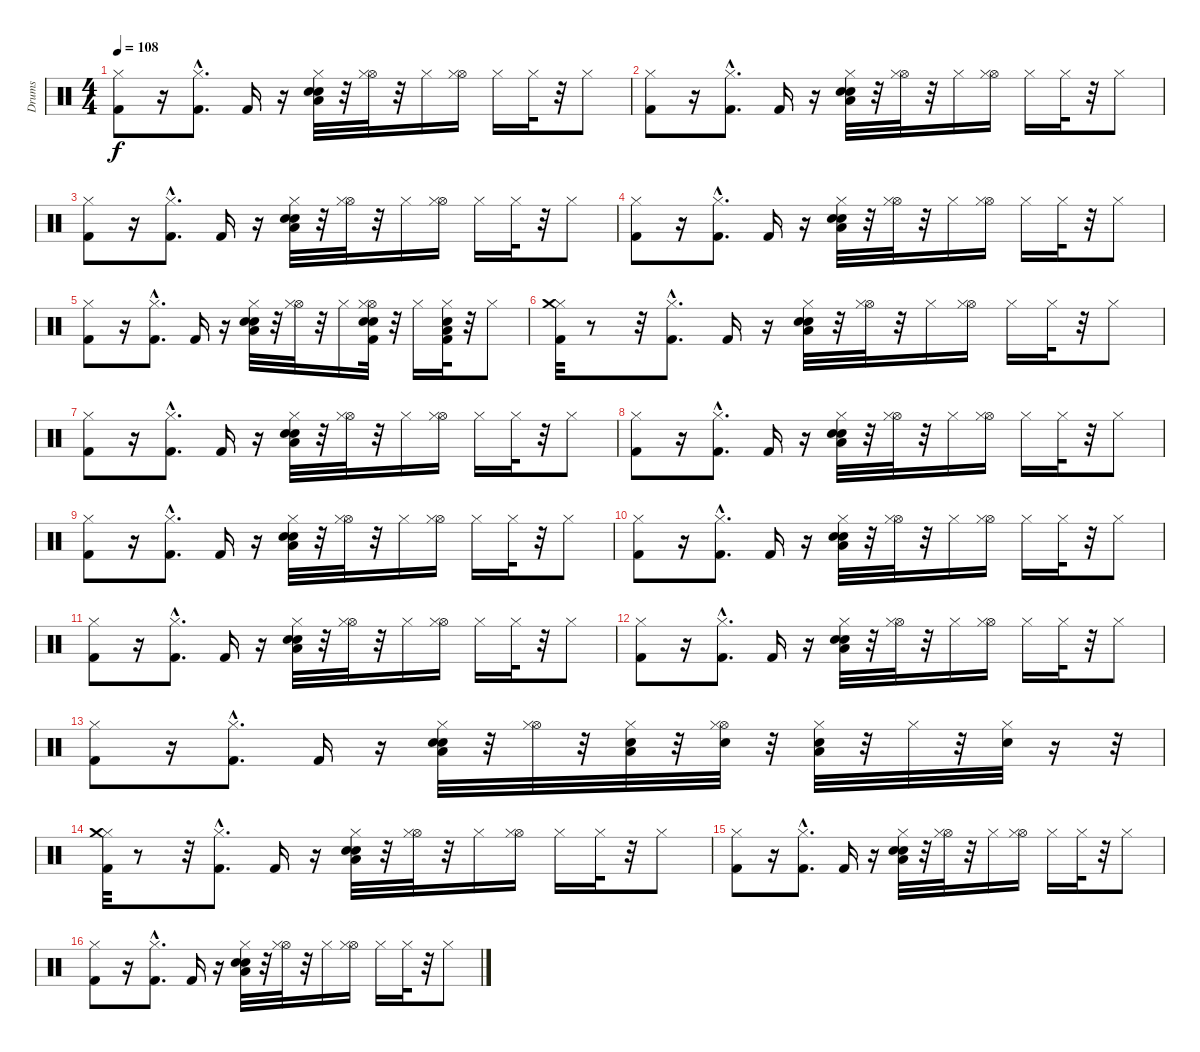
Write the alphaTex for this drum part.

\track ("Drums" "Drums") {instrument percussion}
\staff {score}
\articulation defaults
\ts (4 4)
\tempo 108
\clef neutral
\ks c
("Hi-Hat (closed)" "Kick (hit) 2").8{dy f} r.16 ("Kick (hit) 2"{hac} "Hi-Hat (closed)"{hac}).8{d} "Kick (hit) 2".16 r.16 ("Low Floor Tom (hit)" "Electric Snare (hit)" "Snare (hit) 2" "Hi-Hat (closed)").32 r.32 ("Hi-Hat (open)" "Hi-Hat (closed)").32 r.32 "Hi-Hat (closed)".16 ("Hi-Hat (open)" "Hi-Hat (closed)").16 "Hi-Hat (closed)".16 "Hi-Hat (closed)".32 r.32 "Hi-Hat (closed)".8 |
("Hi-Hat (closed)" "Kick (hit) 2").8 r.16 ("Kick (hit) 2"{hac} "Hi-Hat (closed)"{hac}).8{d} "Kick (hit) 2".16 r.16 ("Low Floor Tom (hit)" "Electric Snare (hit)" "Snare (hit) 2" "Hi-Hat (closed)").32 r.32 ("Hi-Hat (open)" "Hi-Hat (closed)").32 r.32 "Hi-Hat (closed)".16 ("Hi-Hat (open)" "Hi-Hat (closed)").16 "Hi-Hat (closed)".16 "Hi-Hat (closed)".32 r.32 "Hi-Hat (closed)".8 |
("Hi-Hat (closed)" "Kick (hit) 2").8 r.16 ("Kick (hit) 2"{hac} "Hi-Hat (closed)"{hac}).8{d} "Kick (hit) 2".16 r.16 ("Low Floor Tom (hit)" "Electric Snare (hit)" "Snare (hit) 2" "Hi-Hat (closed)").32 r.32 ("Hi-Hat (open)" "Hi-Hat (closed)").32 r.32 "Hi-Hat (closed)".16 ("Hi-Hat (open)" "Hi-Hat (closed)").16 "Hi-Hat (closed)".16 "Hi-Hat (closed)".32 r.32 "Hi-Hat (closed)".8 |
("Hi-Hat (closed)" "Kick (hit) 2").8 r.16 ("Kick (hit) 2"{hac} "Hi-Hat (closed)"{hac}).8{d} "Kick (hit) 2".16 r.16 ("Low Floor Tom (hit)" "Electric Snare (hit)" "Snare (hit) 2" "Hi-Hat (closed)").32 r.32 ("Hi-Hat (open)" "Hi-Hat (closed)").32 r.32 "Hi-Hat (closed)".16 ("Hi-Hat (open)" "Hi-Hat (closed)").16 "Hi-Hat (closed)".16 "Hi-Hat (closed)".32 r.32 "Hi-Hat (closed)".8 |
("Hi-Hat (closed)" "Kick (hit) 2").8 r.16 ("Kick (hit) 2"{hac} "Hi-Hat (closed)"{hac}).8{d} "Kick (hit) 2".16 r.16 ("Low Floor Tom (hit)" "Electric Snare (hit)" "Snare (hit) 2" "Hi-Hat (closed)").32 r.32 ("Hi-Hat (open)" "Hi-Hat (closed)").32 r.32 "Hi-Hat (closed)".16 ("Hi-Hat (open)" "Hi-Hat (closed)" "Kick (hit) 2" "Electric Snare (hit)" "Snare (hit) 2").32 r.32 "Hi-Hat (closed)".16 ("Snare (hit) 2" "Kick (hit) 2" "Low Floor Tom (hit)" "Hi-Hat (closed)").32 r.32 "Hi-Hat (closed)".8 |
("Hi-Hat (closed)" "Kick (hit) 2" "Crash medium (hit)").32 r.8 r.32 ("Kick (hit) 2"{hac} "Hi-Hat (closed)"{hac}).8{d} "Kick (hit) 2".16 r.16 ("Low Floor Tom (hit)" "Electric Snare (hit)" "Snare (hit) 2" "Hi-Hat (closed)").32 r.32 ("Hi-Hat (open)" "Hi-Hat (closed)").32 r.32 "Hi-Hat (closed)".16 ("Hi-Hat (open)" "Hi-Hat (closed)").16 "Hi-Hat (closed)".16 "Hi-Hat (closed)".32 r.32 "Hi-Hat (closed)".8 |
("Hi-Hat (closed)" "Kick (hit) 2").8 r.16 ("Kick (hit) 2"{hac} "Hi-Hat (closed)"{hac}).8{d} "Kick (hit) 2".16 r.16 ("Low Floor Tom (hit)" "Electric Snare (hit)" "Snare (hit) 2" "Hi-Hat (closed)").32 r.32 ("Hi-Hat (open)" "Hi-Hat (closed)").32 r.32 "Hi-Hat (closed)".16 ("Hi-Hat (open)" "Hi-Hat (closed)").16 "Hi-Hat (closed)".16 "Hi-Hat (closed)".32 r.32 "Hi-Hat (closed)".8 |
("Hi-Hat (closed)" "Kick (hit) 2").8 r.16 ("Kick (hit) 2"{hac} "Hi-Hat (closed)"{hac}).8{d} "Kick (hit) 2".16 r.16 ("Low Floor Tom (hit)" "Electric Snare (hit)" "Snare (hit) 2" "Hi-Hat (closed)").32 r.32 ("Hi-Hat (open)" "Hi-Hat (closed)").32 r.32 "Hi-Hat (closed)".16 ("Hi-Hat (open)" "Hi-Hat (closed)").16 "Hi-Hat (closed)".16 "Hi-Hat (closed)".32 r.32 "Hi-Hat (closed)".8 |
("Hi-Hat (closed)" "Kick (hit) 2").8 r.16 ("Kick (hit) 2"{hac} "Hi-Hat (closed)"{hac}).8{d} "Kick (hit) 2".16 r.16 ("Low Floor Tom (hit)" "Electric Snare (hit)" "Snare (hit) 2" "Hi-Hat (closed)").32 r.32 ("Hi-Hat (open)" "Hi-Hat (closed)").32 r.32 "Hi-Hat (closed)".16 ("Hi-Hat (open)" "Hi-Hat (closed)").16 "Hi-Hat (closed)".16 "Hi-Hat (closed)".32 r.32 "Hi-Hat (closed)".8 |
("Hi-Hat (closed)" "Kick (hit) 2").8 r.16 ("Kick (hit) 2"{hac} "Hi-Hat (closed)"{hac}).8{d} "Kick (hit) 2".16 r.16 ("Low Floor Tom (hit)" "Electric Snare (hit)" "Snare (hit) 2" "Hi-Hat (closed)").32 r.32 ("Hi-Hat (open)" "Hi-Hat (closed)").32 r.32 "Hi-Hat (closed)".16 ("Hi-Hat (open)" "Hi-Hat (closed)").16 "Hi-Hat (closed)".16 "Hi-Hat (closed)".32 r.32 "Hi-Hat (closed)".8 |
("Hi-Hat (closed)" "Kick (hit) 2").8 r.16 ("Kick (hit) 2"{hac} "Hi-Hat (closed)"{hac}).8{d} "Kick (hit) 2".16 r.16 ("Low Floor Tom (hit)" "Electric Snare (hit)" "Snare (hit) 2" "Hi-Hat (closed)").32 r.32 ("Hi-Hat (open)" "Hi-Hat (closed)").32 r.32 "Hi-Hat (closed)".16 ("Hi-Hat (open)" "Hi-Hat (closed)").16 "Hi-Hat (closed)".16 "Hi-Hat (closed)".32 r.32 "Hi-Hat (closed)".8 |
("Hi-Hat (closed)" "Kick (hit) 2").8 r.16 ("Kick (hit) 2"{hac} "Hi-Hat (closed)"{hac}).8{d} "Kick (hit) 2".16 r.16 ("Low Floor Tom (hit)" "Electric Snare (hit)" "Snare (hit) 2" "Hi-Hat (closed)").32 r.32 ("Hi-Hat (open)" "Hi-Hat (closed)").32 r.32 "Hi-Hat (closed)".16 ("Hi-Hat (open)" "Hi-Hat (closed)").16 "Hi-Hat (closed)".16 "Hi-Hat (closed)".32 r.32 "Hi-Hat (closed)".8 |
("Hi-Hat (closed)" "Kick (hit) 2").8 r.16 ("Kick (hit) 2"{hac} "Hi-Hat (closed)"{hac}).8{d} "Kick (hit) 2".16 r.16 ("Low Floor Tom (hit)" "Electric Snare (hit)" "Snare (hit) 2" "Hi-Hat (closed)").32 r.32 ("Hi-Hat (open)" "Hi-Hat (closed)").32 r.32 ("Hi-Hat (closed)" "Electric Snare (hit)" "Low Tom (hit)").32 r.32 ("Hi-Hat (open)" "Hi-Hat (closed)" "Electric Snare (hit)").32 r.32 ("Hi-Hat (closed)" "Electric Snare (hit)" "Low Tom (hit)").32 r.32 "Hi-Hat (closed)".32 r.32 ("Hi-Hat (closed)" "Electric Snare (hit)").32 r.16 r.32 |
("Hi-Hat (closed)" "Kick (hit) 2" "Crash medium (hit)").32 r.8 r.32 ("Kick (hit) 2"{hac} "Hi-Hat (closed)"{hac}).8{d} "Kick (hit) 2".16 r.16 ("Low Floor Tom (hit)" "Electric Snare (hit)" "Snare (hit) 2" "Hi-Hat (closed)").32 r.32 ("Hi-Hat (open)" "Hi-Hat (closed)").32 r.32 "Hi-Hat (closed)".16 ("Hi-Hat (open)" "Hi-Hat (closed)").16 "Hi-Hat (closed)".16 "Hi-Hat (closed)".32 r.32 "Hi-Hat (closed)".8 |
("Hi-Hat (closed)" "Kick (hit) 2").8 r.16 ("Kick (hit) 2"{hac} "Hi-Hat (closed)"{hac}).8{d} "Kick (hit) 2".16 r.16 ("Low Floor Tom (hit)" "Electric Snare (hit)" "Snare (hit) 2" "Hi-Hat (closed)").32 r.32 ("Hi-Hat (open)" "Hi-Hat (closed)").32 r.32 "Hi-Hat (closed)".16 ("Hi-Hat (open)" "Hi-Hat (closed)").16 "Hi-Hat (closed)".16 "Hi-Hat (closed)".32 r.32 "Hi-Hat (closed)".8 |
("Hi-Hat (closed)" "Kick (hit) 2").8 r.16 ("Kick (hit) 2"{hac} "Hi-Hat (closed)"{hac}).8{d} "Kick (hit) 2".16 r.16 ("Low Floor Tom (hit)" "Electric Snare (hit)" "Snare (hit) 2" "Hi-Hat (closed)").32 r.32 ("Hi-Hat (open)" "Hi-Hat (closed)").32 r.32 "Hi-Hat (closed)".16 ("Hi-Hat (open)" "Hi-Hat (closed)").16 "Hi-Hat (closed)".16 "Hi-Hat (closed)".32 r.32 "Hi-Hat (closed)".8
